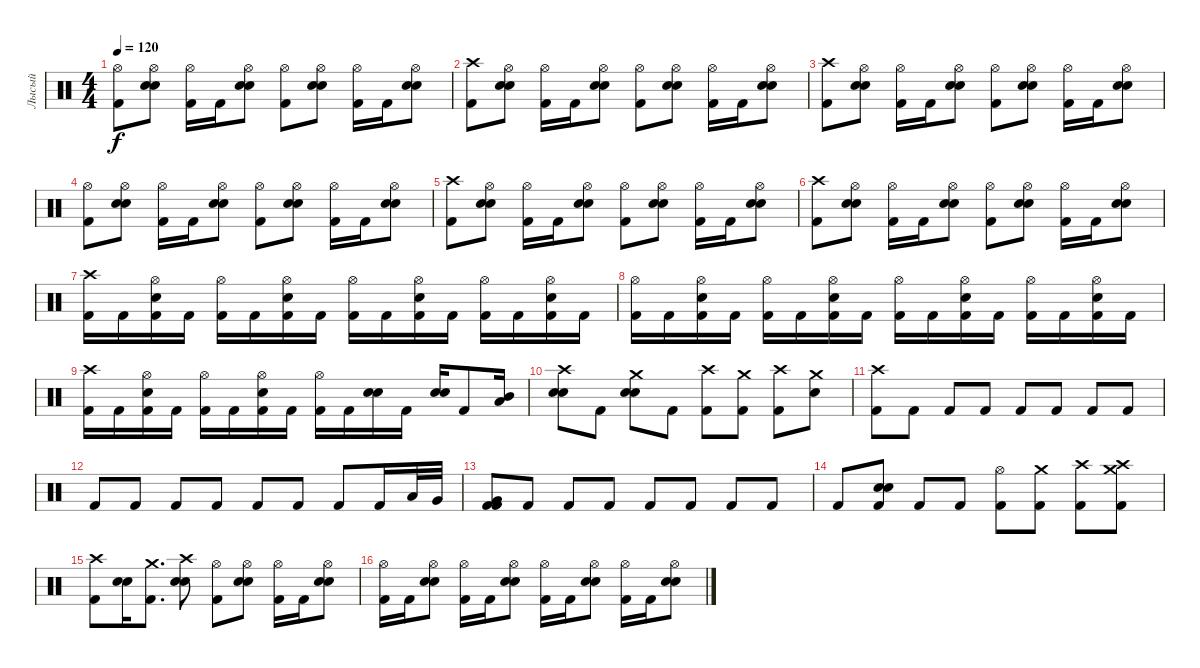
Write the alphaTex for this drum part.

\track ("Лысый" "Лысый") {instrument percussion}
\staff {score}
\articulation defaults
\ts (4 4)
\tempo 120
\clef neutral
\ks c
("Kick (hit) 2" "Hi-Hat (open)").8{dy f} ("Snare (hit) 2" "Electric Snare (hit)" "Hi-Hat (open)").8 ("Kick (hit) 2" "Hi-Hat (open)").16 "Kick (hit) 2".16 ("Snare (hit) 2" "Electric Snare (hit)" "Hi-Hat (open)").8 ("Kick (hit) 2" "Hi-Hat (open)").8 ("Snare (hit) 2" "Electric Snare (hit)" "Hi-Hat (open)").8 ("Kick (hit) 2" "Hi-Hat (open)").16 "Kick (hit) 2".16 ("Snare (hit) 2" "Electric Snare (hit)" "Hi-Hat (open)").8 |
("Kick (hit) 2" "Crash high (hit)").8 ("Snare (hit) 2" "Electric Snare (hit)" "Hi-Hat (open)").8 ("Kick (hit) 2" "Hi-Hat (open)").16 "Kick (hit) 2".16 ("Snare (hit) 2" "Electric Snare (hit)" "Hi-Hat (open)").8 ("Kick (hit) 2" "Hi-Hat (open)").8 ("Snare (hit) 2" "Electric Snare (hit)" "Hi-Hat (open)").8 ("Kick (hit) 2" "Hi-Hat (open)").16 "Kick (hit) 2".16 ("Snare (hit) 2" "Electric Snare (hit)" "Hi-Hat (open)").8 |
("Kick (hit) 2" "Crash high (hit)").8 ("Snare (hit) 2" "Electric Snare (hit)" "Hi-Hat (open)").8 ("Kick (hit) 2" "Hi-Hat (open)").16 "Kick (hit) 2".16 ("Snare (hit) 2" "Electric Snare (hit)" "Hi-Hat (open)").8 ("Kick (hit) 2" "Hi-Hat (open)").8 ("Snare (hit) 2" "Electric Snare (hit)" "Hi-Hat (open)").8 ("Kick (hit) 2" "Hi-Hat (open)").16 "Kick (hit) 2".16 ("Snare (hit) 2" "Electric Snare (hit)" "Hi-Hat (open)").8 |
("Kick (hit) 2" "Hi-Hat (open)").8 ("Snare (hit) 2" "Electric Snare (hit)" "Hi-Hat (open)").8 ("Kick (hit) 2" "Hi-Hat (open)").16 "Kick (hit) 2".16 ("Snare (hit) 2" "Electric Snare (hit)" "Hi-Hat (open)").8 ("Kick (hit) 2" "Hi-Hat (open)").8 ("Snare (hit) 2" "Electric Snare (hit)" "Hi-Hat (open)").8 ("Kick (hit) 2" "Hi-Hat (open)").16 "Kick (hit) 2".16 ("Snare (hit) 2" "Electric Snare (hit)" "Hi-Hat (open)").8 |
("Kick (hit) 2" "Crash high (hit)").8 ("Snare (hit) 2" "Electric Snare (hit)" "Hi-Hat (open)").8 ("Kick (hit) 2" "Hi-Hat (open)").16 "Kick (hit) 2".16 ("Snare (hit) 2" "Electric Snare (hit)" "Hi-Hat (open)").8 ("Kick (hit) 2" "Hi-Hat (open)").8 ("Snare (hit) 2" "Electric Snare (hit)" "Hi-Hat (open)").8 ("Kick (hit) 2" "Hi-Hat (open)").16 "Kick (hit) 2".16 ("Snare (hit) 2" "Electric Snare (hit)" "Hi-Hat (open)").8 |
("Kick (hit) 2" "Crash high (hit)").8 ("Snare (hit) 2" "Electric Snare (hit)" "Hi-Hat (open)").8 ("Kick (hit) 2" "Hi-Hat (open)").16 "Kick (hit) 2".16 ("Snare (hit) 2" "Electric Snare (hit)" "Hi-Hat (open)").8 ("Kick (hit) 2" "Hi-Hat (open)").8 ("Snare (hit) 2" "Electric Snare (hit)" "Hi-Hat (open)").8 ("Kick (hit) 2" "Hi-Hat (open)").16 "Kick (hit) 2".16 ("Snare (hit) 2" "Electric Snare (hit)" "Hi-Hat (open)").8 |
("Kick (hit) 2" "Crash high (hit)").16 "Kick (hit) 2".16 ("Kick (hit) 2" "Snare (hit) 2" "Hi-Hat (open)").16 "Kick (hit) 2".16 ("Kick (hit) 2" "Hi-Hat (open)").16 "Kick (hit) 2".16 ("Kick (hit) 2" "Snare (hit) 2" "Hi-Hat (open)").16 "Kick (hit) 2".16 ("Kick (hit) 2" "Hi-Hat (open)").16 "Kick (hit) 2".16 ("Kick (hit) 2" "Snare (hit) 2" "Hi-Hat (open)").16 "Kick (hit) 2".16 ("Kick (hit) 2" "Hi-Hat (open)").16 "Kick (hit) 2".16 ("Kick (hit) 2" "Snare (hit) 2" "Hi-Hat (open)").16 "Kick (hit) 2".16 |
("Kick (hit) 2" "Hi-Hat (open)").16 "Kick (hit) 2".16 ("Kick (hit) 2" "Snare (hit) 2" "Hi-Hat (open)").16 "Kick (hit) 2".16 ("Kick (hit) 2" "Hi-Hat (open)").16 "Kick (hit) 2".16 ("Kick (hit) 2" "Snare (hit) 2" "Hi-Hat (open)").16 "Kick (hit) 2".16 ("Kick (hit) 2" "Hi-Hat (open)").16 "Kick (hit) 2".16 ("Kick (hit) 2" "Snare (hit) 2" "Hi-Hat (open)").16 "Kick (hit) 2".16 ("Kick (hit) 2" "Hi-Hat (open)").16 "Kick (hit) 2".16 ("Kick (hit) 2" "Snare (hit) 2" "Hi-Hat (open)").16 "Kick (hit) 2".16 |
("Kick (hit) 2" "Crash high (hit)").16 "Kick (hit) 2".16 ("Kick (hit) 2" "Snare (hit) 2" "Hi-Hat (open)").16 "Kick (hit) 2".16 ("Kick (hit) 2" "Hi-Hat (open)").16 "Kick (hit) 2".16 ("Kick (hit) 2" "Snare (hit) 2" "Hi-Hat (open)").16 "Kick (hit) 2".16 ("Kick (hit) 2" "Hi-Hat (open)").16 "Kick (hit) 2".16 ("Snare (hit) 2" "Electric Snare (hit)").16 "Kick (hit) 2".16 ("Snare (hit) 2" "Electric Snare (hit)").16 "Kick (hit) 2".8 ("Mid Tom (hit)" "Low Tom (hit)").16 |
("Snare (hit) 2" "Electric Snare (hit)" "Crash high (hit)").8 "Kick (hit) 2".8 ("Snare (hit) 2" "Electric Snare (hit)" "Crash medium (hit)").8 "Kick (hit) 2".8 ("Kick (hit) 2" "Crash high (hit)").8 ("Kick (hit) 2" "Crash medium (hit)").8 ("Kick (hit) 2" "Crash high (hit)").8 ("Snare (hit) 2" "Crash medium (hit)").8 |
("Kick (hit) 2" "Crash high (hit)").8 "Kick (hit) 2".8 "Kick (hit) 2".8 "Kick (hit) 2".8 "Kick (hit) 2".8 "Kick (hit) 2".8 "Kick (hit) 2".8 "Kick (hit) 2".8 |
"Kick (hit) 2".8 "Kick (hit) 2".8 "Kick (hit) 2".8 "Kick (hit) 2".8 "Kick (hit) 2".8 "Kick (hit) 2".8 "Kick (hit) 2".8 "Kick (hit) 2".16 "Low Tom (hit)".32 "Very Low Tom (hit)".32 |
("Kick (hit) 2" "Kick (hit) 2" "Very Low Tom (hit)").8 "Kick (hit) 2".8 "Kick (hit) 2".8 "Kick (hit) 2".8 "Kick (hit) 2".8 "Kick (hit) 2".8 "Kick (hit) 2".8 "Kick (hit) 2".8 |
"Kick (hit) 2".8 ("Kick (hit) 2" "Snare (hit) 2" "Electric Snare (hit)").8 "Kick (hit) 2".8 "Kick (hit) 2".8 ("Kick (hit) 2" "Hi-Hat (open)").8 ("Kick (hit) 2" "Crash medium (hit)").8 ("Kick (hit) 2" "Crash high (hit)").8 ("Kick (hit) 2" "Crash medium (hit)" "Crash high (hit)").8 |
("Kick (hit) 2" "Crash high (hit)").8 ("Snare (hit) 2" "Electric Snare (hit)").16 ("Kick (hit) 2" "Crash medium (hit)").8{d} ("Snare (hit) 2" "Electric Snare (hit)" "Crash high (hit)").8 ("Kick (hit) 2" "Hi-Hat (open)").8 ("Snare (hit) 2" "Electric Snare (hit)" "Hi-Hat (open)").8 ("Hi-Hat (open)" "Kick (hit) 2").16 "Kick (hit) 2".16 ("Snare (hit) 2" "Electric Snare (hit)" "Hi-Hat (open)").8 |
("Hi-Hat (open)" "Kick (hit) 2").16 "Kick (hit) 2".16 ("Snare (hit) 2" "Electric Snare (hit)" "Hi-Hat (open)").8 ("Hi-Hat (open)" "Kick (hit) 2").16 "Kick (hit) 2".16 ("Snare (hit) 2" "Electric Snare (hit)" "Hi-Hat (open)").8 ("Hi-Hat (open)" "Kick (hit) 2").16 "Kick (hit) 2".16 ("Snare (hit) 2" "Electric Snare (hit)" "Hi-Hat (open)").8 ("Hi-Hat (open)" "Kick (hit) 2").16 "Kick (hit) 2".16 ("Snare (hit) 2" "Electric Snare (hit)" "Hi-Hat (open)").8
